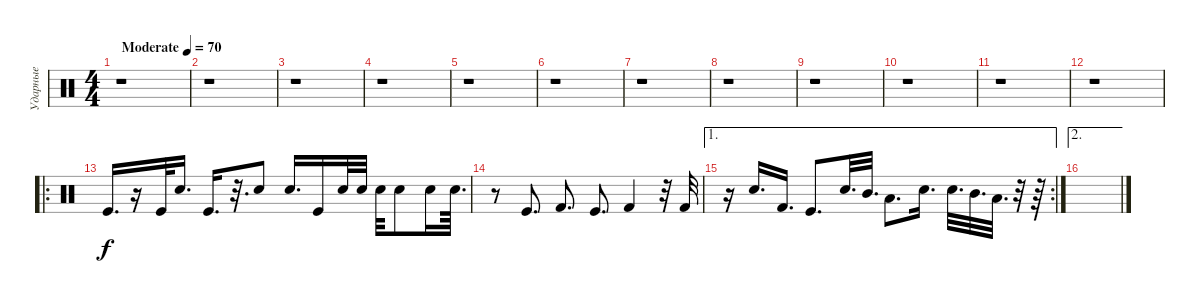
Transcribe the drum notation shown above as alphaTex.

\track ("Ударные" "Ударные") {mute instrument percussion}
\staff {score}
\articulation defaults
\ts (4 4)
\tempo (70 "Moderate")
\clef neutral
\ks c
r.1{dy f} |
r.1 |
r.1 |
r.1 |
r.1 |
r.1 |
r.1 |
r.1 |
r.1 |
r.1 |
r.1 |
r.1 |
\ro "Kick (hit)".16{d}
r.16 "Kick (hit)".32 "Electric Snare (hit)".16{d} "Kick (hit)".16{d} r.32{d} "Electric Snare (hit)".8 "Electric Snare (hit)".16{d} "Kick (hit)".16 "Electric Snare (hit)".32 "Electric Snare (hit)".32 "Electric Snare (hit)".32 "Electric Snare (hit)".8 "Electric Snare (hit)".16 "Electric Snare (hit)".64{d} |
r.8 "Kick (hit)".8{d} "Kick (hit) 2".8{d} "Kick (hit)".8{d} "Kick (hit) 2".4 r.32 "Kick (hit) 2".32 |
\ae 1
\rc 2
r.16 "Snare (hit) 2".16{d} "Kick (hit) 2".16{d} "Kick (hit)".8{d} "Snare (hit) 2".32{d} "Mid Tom (hit)".32{d} "Low Floor Tom (hit)".8{d} "Snare (hit) 2".16{d} "Snare (hit) 2".32{d} "Mid Tom (hit)".32{d} "Low Floor Tom (hit)".32{d} r.32 r.64 |
\ae 2
